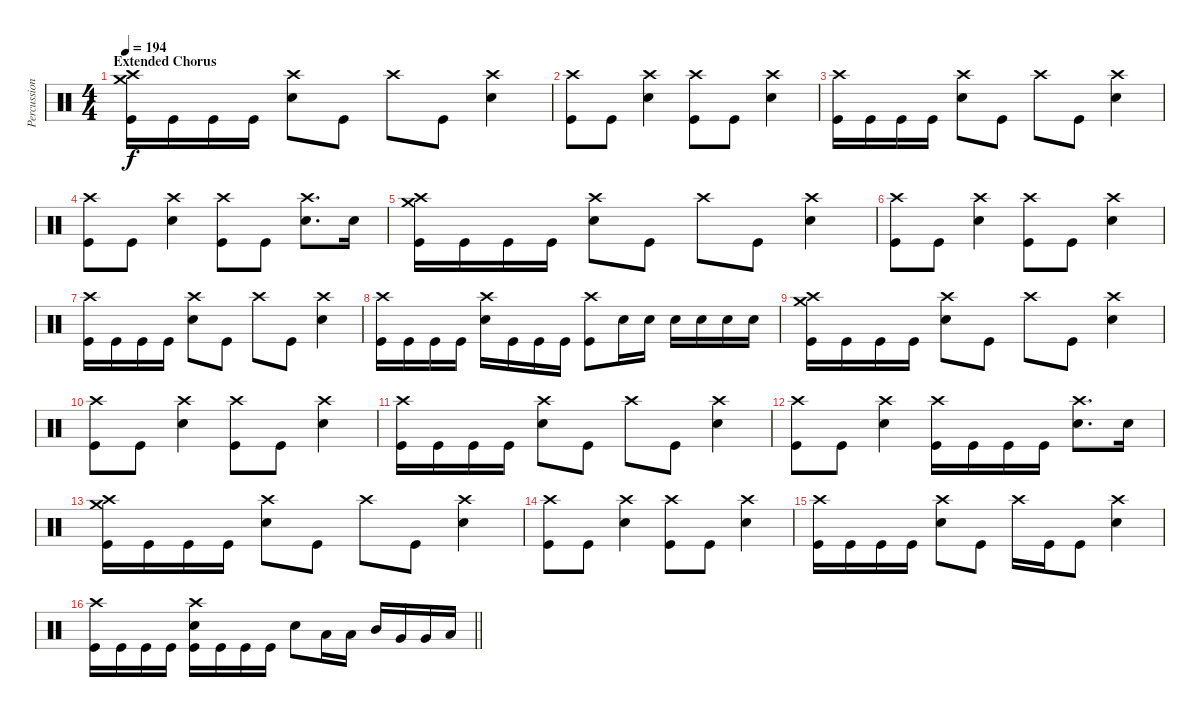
\track ("Percussion" "Percussion") {instrument percussion}
\staff {score}
\articulation defaults
\ts (4 4)
\section ("" "Extended Chorus")
\tempo 194
\clef neutral
\ks c
("Crash high (hit)" "Crash medium (hit)" "Kick (hit)").16{dy f} "Kick (hit)".16 "Kick (hit)".16 "Kick (hit)".16 ("Crash high (hit)" "Electric Snare (hit)").8 "Kick (hit)".8 "Crash high (hit)".8 "Kick (hit)".8 ("Crash high (hit)" "Electric Snare (hit)").4 |
("Crash high (hit)" "Kick (hit)").8 "Kick (hit)".8 ("Crash high (hit)" "Electric Snare (hit)").4 ("Crash high (hit)" "Kick (hit)").8 "Kick (hit)".8 ("Crash high (hit)" "Electric Snare (hit)").4 |
("Crash high (hit)" "Kick (hit)").16 "Kick (hit)".16 "Kick (hit)".16 "Kick (hit)".16 ("Crash high (hit)" "Electric Snare (hit)").8 "Kick (hit)".8 "Crash high (hit)".8 "Kick (hit)".8 ("Crash high (hit)" "Electric Snare (hit)").4 |
("Crash high (hit)" "Kick (hit)").8 "Kick (hit)".8 ("Crash high (hit)" "Electric Snare (hit)").4 ("Crash high (hit)" "Kick (hit)").8 "Kick (hit)".8 ("Crash high (hit)" "Electric Snare (hit)").8{d} "Electric Snare (hit)".16 |
("Crash high (hit)" "Crash medium (hit)" "Kick (hit)").16 "Kick (hit)".16 "Kick (hit)".16 "Kick (hit)".16 ("Crash high (hit)" "Electric Snare (hit)").8 "Kick (hit)".8 "Crash high (hit)".8 "Kick (hit)".8 ("Crash high (hit)" "Electric Snare (hit)").4 |
("Crash high (hit)" "Kick (hit)").8 "Kick (hit)".8 ("Crash high (hit)" "Electric Snare (hit)").4 ("Crash high (hit)" "Kick (hit)").8 "Kick (hit)".8 ("Crash high (hit)" "Electric Snare (hit)").4 |
("Crash high (hit)" "Kick (hit)").16 "Kick (hit)".16 "Kick (hit)".16 "Kick (hit)".16 ("Crash high (hit)" "Electric Snare (hit)").8 "Kick (hit)".8 "Crash high (hit)".8 "Kick (hit)".8 ("Crash high (hit)" "Electric Snare (hit)").4 |
("Crash high (hit)" "Kick (hit)").16 "Kick (hit)".16 "Kick (hit)".16 "Kick (hit)".16 ("Crash high (hit)" "Electric Snare (hit)").16 "Kick (hit)".16 "Kick (hit)".16 "Kick (hit)".16 ("Crash high (hit)" "Kick (hit)").8 "Electric Snare (hit)".16 "Electric Snare (hit)".16 "Electric Snare (hit)".16 "Electric Snare (hit)".16 "Electric Snare (hit)".16 "Electric Snare (hit)".16 |
("Crash high (hit)" "Crash medium (hit)" "Kick (hit)").16 "Kick (hit)".16 "Kick (hit)".16 "Kick (hit)".16 ("Crash high (hit)" "Electric Snare (hit)").8 "Kick (hit)".8 "Crash high (hit)".8 "Kick (hit)".8 ("Crash high (hit)" "Electric Snare (hit)").4 |
("Crash high (hit)" "Kick (hit)").8 "Kick (hit)".8 ("Crash high (hit)" "Electric Snare (hit)").4 ("Crash high (hit)" "Kick (hit)").8 "Kick (hit)".8 ("Crash high (hit)" "Electric Snare (hit)").4 |
("Crash high (hit)" "Kick (hit)").16 "Kick (hit)".16 "Kick (hit)".16 "Kick (hit)".16 ("Crash high (hit)" "Electric Snare (hit)").8 "Kick (hit)".8 "Crash high (hit)".8 "Kick (hit)".8 ("Crash high (hit)" "Electric Snare (hit)").4 |
("Crash high (hit)" "Kick (hit)").8 "Kick (hit)".8 ("Crash high (hit)" "Electric Snare (hit)").4 ("Crash high (hit)" "Kick (hit)").16 "Kick (hit)".16 "Kick (hit)".16 "Kick (hit)".16 ("Crash high (hit)" "Electric Snare (hit)").8{d} "Electric Snare (hit)".16 |
("Crash high (hit)" "Crash medium (hit)" "Kick (hit)").16 "Kick (hit)".16 "Kick (hit)".16 "Kick (hit)".16 ("Crash high (hit)" "Electric Snare (hit)").8 "Kick (hit)".8 "Crash high (hit)".8 "Kick (hit)".8 ("Crash high (hit)" "Electric Snare (hit)").4 |
("Crash high (hit)" "Kick (hit)").8 "Kick (hit)".8 ("Crash high (hit)" "Electric Snare (hit)").4 ("Crash high (hit)" "Kick (hit)").8 "Kick (hit)".8 ("Crash high (hit)" "Electric Snare (hit)").4 |
("Crash high (hit)" "Kick (hit)").16 "Kick (hit)".16 "Kick (hit)".16 "Kick (hit)".16 ("Crash high (hit)" "Electric Snare (hit)").8 "Kick (hit)".8 "Crash high (hit)".16 "Kick (hit)".16 "Kick (hit)".8 ("Crash high (hit)" "Electric Snare (hit)").4 |
\barLineRight lightlight
("Crash high (hit)" "Kick (hit)").16 "Kick (hit)".16 "Kick (hit)".16 "Kick (hit)".16 ("Crash high (hit)" "Electric Snare (hit)" "Kick (hit)").16 "Kick (hit)".16 "Kick (hit)".16 "Kick (hit)".16 "Electric Snare (hit)".8 "Low Tom (hit)".16 "Low Tom (hit)".16 "Mid Tom (hit)".16 "Very Low Tom (hit)".16 "Very Low Tom (hit)".16 "Low Floor Tom (hit)".16
